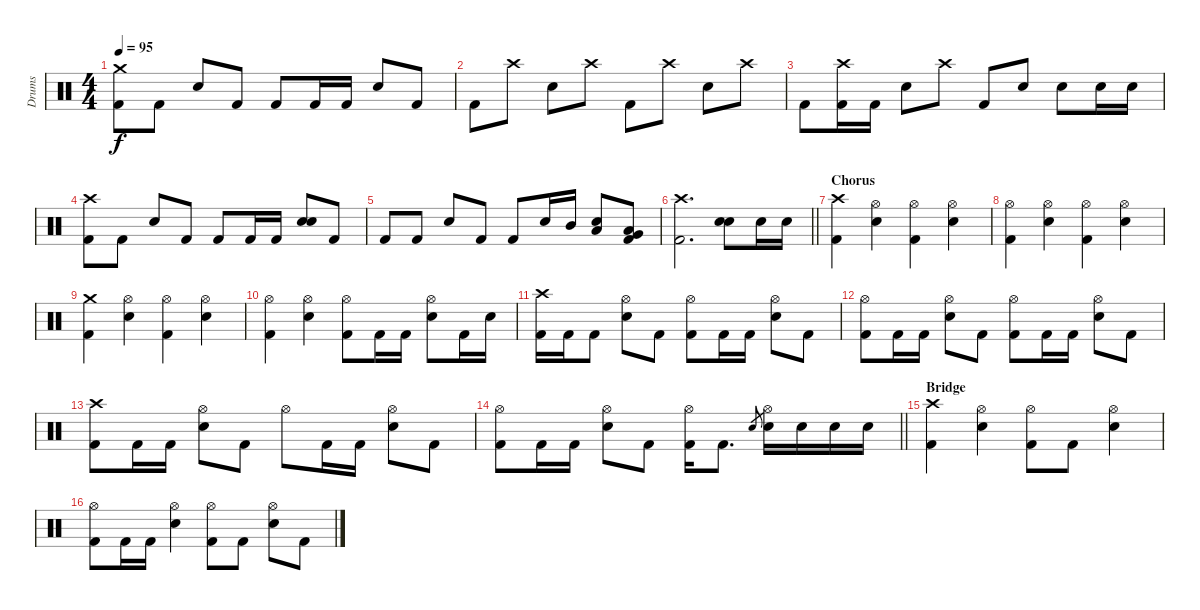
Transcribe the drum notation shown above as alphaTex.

\track ("Drums" "Drums") {instrument percussion}
\staff {score}
\articulation defaults
\ts (4 4)
\tempo 95
\clef neutral
\ks c
("Crash medium (hit)" "Kick (hit) 2").8{dy f} "Kick (hit) 2".8 "Electric Snare (hit)".8 "Kick (hit) 2".8 "Kick (hit) 2".8 "Kick (hit) 2".16 "Kick (hit) 2".16 "Electric Snare (hit)".8 "Kick (hit) 2".8 |
"Kick (hit) 2".8 "Crash high (hit)".8 "Electric Snare (hit)".8 "Crash high (hit)".8 "Kick (hit) 2".8 "Crash high (hit)".8 "Electric Snare (hit)".8 "Crash high (hit)".8 |
"Kick (hit) 2".8 ("Crash high (hit)" "Kick (hit) 2").16 "Kick (hit) 2".16 "Electric Snare (hit)".8 "Crash high (hit)".8 "Kick (hit) 2".8 "Electric Snare (hit)".8 "Electric Snare (hit)".8 "Electric Snare (hit)".16 "Electric Snare (hit)".16 |
("Crash high (hit)" "Kick (hit) 2").8 "Kick (hit) 2".8 "Electric Snare (hit)".8 "Kick (hit) 2".8 "Kick (hit) 2".8 "Kick (hit) 2".16 "Kick (hit) 2".16 ("Electric Snare (hit)" "Electric Snare (hit)").8{bd 60} "Kick (hit) 2".8 |
"Kick (hit) 2".8 "Kick (hit) 2".8 "Electric Snare (hit)".8 "Kick (hit) 2".8 "Kick (hit) 2".8 "Electric Snare (hit)".16 "Mid Tom (hit)".16 ("Low Tom (hit)" "Electric Snare (hit)").8 ("Low Tom (hit)" "Very Low Tom (hit)" "Kick (hit) 2").8 |
\barLineRight lightlight
("Crash high (hit)" "Kick (hit) 2").2{d} ("Electric Snare (hit)" "Electric Snare (hit)").8{bd 240} "Electric Snare (hit)".16 "Electric Snare (hit)".16 |
\section ("" "Chorus")
("Crash high (hit)" "Kick (hit) 2").4 ("Hi-Hat (open)" "Electric Snare (hit)").4 ("Hi-Hat (open)" "Kick (hit) 2").4 ("Hi-Hat (open)" "Electric Snare (hit)").4 |
("Hi-Hat (open)" "Kick (hit) 2").4 ("Hi-Hat (open)" "Electric Snare (hit)").4 ("Hi-Hat (open)" "Kick (hit) 2").4 ("Hi-Hat (open)" "Electric Snare (hit)").4 |
("Crash medium (hit)" "Kick (hit) 2").4 ("Hi-Hat (open)" "Electric Snare (hit)").4 ("Hi-Hat (open)" "Kick (hit) 2").4 ("Hi-Hat (open)" "Electric Snare (hit)").4 |
("Hi-Hat (open)" "Kick (hit) 2").4 ("Hi-Hat (open)" "Electric Snare (hit)").4 ("Hi-Hat (open)" "Kick (hit) 2").8 "Kick (hit) 2".16 "Kick (hit) 2".16 ("Hi-Hat (open)" "Electric Snare (hit)").8 "Kick (hit) 2".16 "Electric Snare (hit)".16 |
("Crash high (hit)" "Kick (hit) 2").16 "Kick (hit) 2".16 "Kick (hit) 2".8 ("Hi-Hat (open)" "Electric Snare (hit)").8 "Kick (hit) 2".8 ("Hi-Hat (open)" "Kick (hit) 2").8 "Kick (hit) 2".16 "Kick (hit) 2".16 ("Hi-Hat (open)" "Electric Snare (hit)").8 "Kick (hit) 2".8 |
("Hi-Hat (open)" "Kick (hit) 2").8 "Kick (hit) 2".16 "Kick (hit) 2".16 ("Hi-Hat (open)" "Electric Snare (hit)").8 "Kick (hit) 2".8 ("Hi-Hat (open)" "Kick (hit) 2").8 "Kick (hit) 2".16 "Kick (hit) 2".16 ("Hi-Hat (open)" "Electric Snare (hit)").8 "Kick (hit) 2".8 |
("Crash high (hit)" "Kick (hit) 2").8 "Kick (hit) 2".16 "Kick (hit) 2".16 ("Hi-Hat (open)" "Electric Snare (hit)").8 "Kick (hit) 2".8 "Hi-Hat (open)".8 "Kick (hit) 2".16 "Kick (hit) 2".16 ("Hi-Hat (open)" "Electric Snare (hit)").8 "Kick (hit) 2".8 |
\barLineRight lightlight
("Hi-Hat (open)" "Kick (hit) 2").8 "Kick (hit) 2".16 "Kick (hit) 2".16 ("Hi-Hat (open)" "Electric Snare (hit)").8 "Kick (hit) 2".8 ("Hi-Hat (open)" "Kick (hit) 2").16 "Kick (hit) 2".8{d} "Electric Snare (hit)".8{gr} ("Hi-Hat (open)" "Electric Snare (hit)").16 "Electric Snare (hit)".16 "Electric Snare (hit)".16 "Electric Snare (hit)".16 |
\section ("" "Bridge")
("Crash high (hit)" "Kick (hit) 2").4 ("Hi-Hat (open)" "Electric Snare (hit)").4 ("Hi-Hat (open)" "Kick (hit) 2").8 "Kick (hit) 2".8 ("Hi-Hat (open)" "Electric Snare (hit)").4 |
("Hi-Hat (open)" "Kick (hit) 2").8 "Kick (hit) 2".16 "Kick (hit) 2".16 ("Hi-Hat (open)" "Electric Snare (hit)").4 ("Hi-Hat (open)" "Kick (hit) 2").8 "Kick (hit) 2".8 ("Hi-Hat (open)" "Electric Snare (hit)").8 "Kick (hit) 2".8
